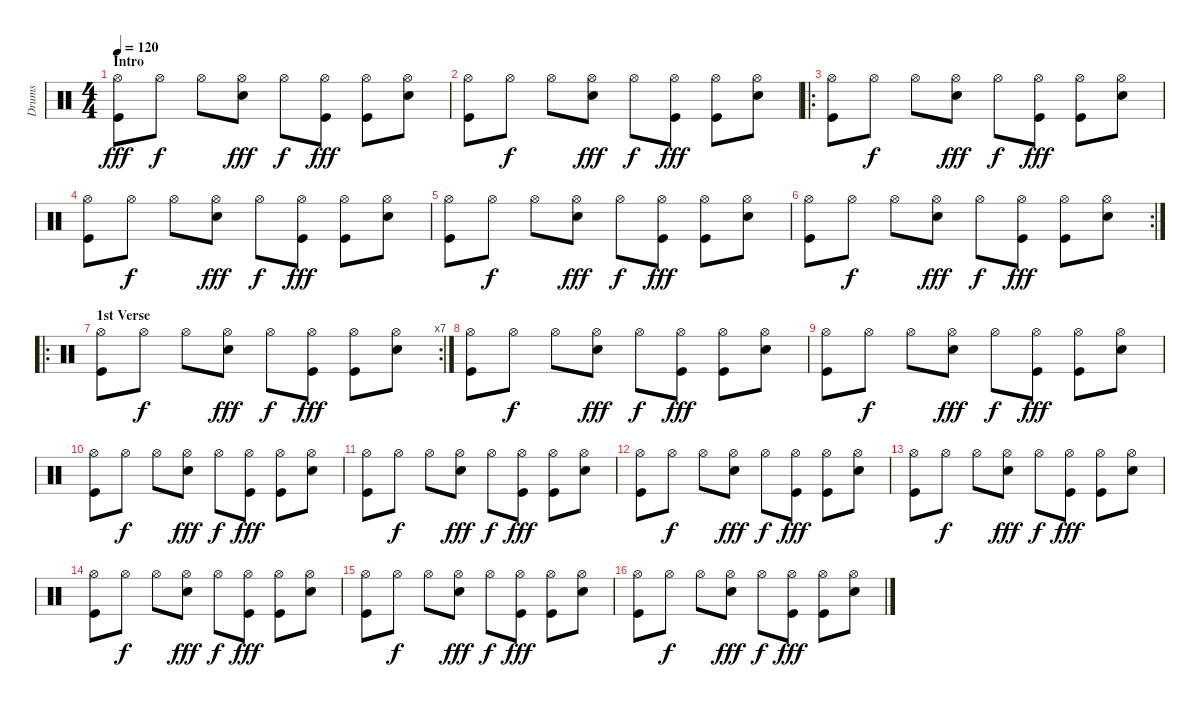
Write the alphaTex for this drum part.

\track ("Drums" "Drums") {instrument percussion}
\staff {score}
\articulation defaults
\ts (4 4)
\section ("" "Intro")
\tempo 120
\clef neutral
\ks c
("Kick (hit)" "Hi-Hat (open)").8{dy fff} "Hi-Hat (open)".8{dy f} "Hi-Hat (open)".8 ("Snare (hit) 2" "Hi-Hat (open)").8{dy fff} "Hi-Hat (open)".8{dy f} ("Kick (hit)" "Hi-Hat (open)").8{dy fff} ("Kick (hit)" "Hi-Hat (open)").8 ("Snare (hit) 2" "Hi-Hat (open)").8 |
("Kick (hit)" "Hi-Hat (open)").8 "Hi-Hat (open)".8{dy f} "Hi-Hat (open)".8 ("Snare (hit) 2" "Hi-Hat (open)").8{dy fff} "Hi-Hat (open)".8{dy f} ("Kick (hit)" "Hi-Hat (open)").8{dy fff} ("Kick (hit)" "Hi-Hat (open)").8 ("Snare (hit) 2" "Hi-Hat (open)").8 |
\ro
("Kick (hit)" "Hi-Hat (open)").8 "Hi-Hat (open)".8{dy f} "Hi-Hat (open)".8 ("Snare (hit) 2" "Hi-Hat (open)").8{dy fff} "Hi-Hat (open)".8{dy f} ("Kick (hit)" "Hi-Hat (open)").8{dy fff} ("Kick (hit)" "Hi-Hat (open)").8 ("Snare (hit) 2" "Hi-Hat (open)").8 |
("Kick (hit)" "Hi-Hat (open)").8 "Hi-Hat (open)".8{dy f} "Hi-Hat (open)".8 ("Snare (hit) 2" "Hi-Hat (open)").8{dy fff} "Hi-Hat (open)".8{dy f} ("Kick (hit)" "Hi-Hat (open)").8{dy fff} ("Kick (hit)" "Hi-Hat (open)").8 ("Snare (hit) 2" "Hi-Hat (open)").8 |
("Kick (hit)" "Hi-Hat (open)").8 "Hi-Hat (open)".8{dy f} "Hi-Hat (open)".8 ("Snare (hit) 2" "Hi-Hat (open)").8{dy fff} "Hi-Hat (open)".8{dy f} ("Kick (hit)" "Hi-Hat (open)").8{dy fff} ("Kick (hit)" "Hi-Hat (open)").8 ("Snare (hit) 2" "Hi-Hat (open)").8 |
\rc 2
("Kick (hit)" "Hi-Hat (open)").8 "Hi-Hat (open)".8{dy f} "Hi-Hat (open)".8 ("Snare (hit) 2" "Hi-Hat (open)").8{dy fff} "Hi-Hat (open)".8{dy f} ("Kick (hit)" "Hi-Hat (open)").8{dy fff} ("Kick (hit)" "Hi-Hat (open)").8 ("Snare (hit) 2" "Hi-Hat (open)").8 |
\ro
\rc 7
\section ("" "1st Verse")
("Kick (hit)" "Hi-Hat (open)").8 "Hi-Hat (open)".8{dy f} "Hi-Hat (open)".8 ("Snare (hit) 2" "Hi-Hat (open)").8{dy fff} "Hi-Hat (open)".8{dy f} ("Kick (hit)" "Hi-Hat (open)").8{dy fff} ("Kick (hit)" "Hi-Hat (open)").8 ("Snare (hit) 2" "Hi-Hat (open)").8 |
("Kick (hit)" "Hi-Hat (open)").8 "Hi-Hat (open)".8{dy f} "Hi-Hat (open)".8 ("Snare (hit) 2" "Hi-Hat (open)").8{dy fff} "Hi-Hat (open)".8{dy f} ("Kick (hit)" "Hi-Hat (open)").8{dy fff} ("Kick (hit)" "Hi-Hat (open)").8 ("Snare (hit) 2" "Hi-Hat (open)").8 |
("Kick (hit)" "Hi-Hat (open)").8 "Hi-Hat (open)".8{dy f} "Hi-Hat (open)".8 ("Snare (hit) 2" "Hi-Hat (open)").8{dy fff} "Hi-Hat (open)".8{dy f} ("Kick (hit)" "Hi-Hat (open)").8{dy fff} ("Kick (hit)" "Hi-Hat (open)").8 ("Snare (hit) 2" "Hi-Hat (open)").8 |
("Kick (hit)" "Hi-Hat (open)").8 "Hi-Hat (open)".8{dy f} "Hi-Hat (open)".8 ("Snare (hit) 2" "Hi-Hat (open)").8{dy fff} "Hi-Hat (open)".8{dy f} ("Kick (hit)" "Hi-Hat (open)").8{dy fff} ("Kick (hit)" "Hi-Hat (open)").8 ("Snare (hit) 2" "Hi-Hat (open)").8 |
("Kick (hit)" "Hi-Hat (open)").8 "Hi-Hat (open)".8{dy f} "Hi-Hat (open)".8 ("Snare (hit) 2" "Hi-Hat (open)").8{dy fff} "Hi-Hat (open)".8{dy f} ("Kick (hit)" "Hi-Hat (open)").8{dy fff} ("Kick (hit)" "Hi-Hat (open)").8 ("Snare (hit) 2" "Hi-Hat (open)").8 |
("Kick (hit)" "Hi-Hat (open)").8 "Hi-Hat (open)".8{dy f} "Hi-Hat (open)".8 ("Snare (hit) 2" "Hi-Hat (open)").8{dy fff} "Hi-Hat (open)".8{dy f} ("Kick (hit)" "Hi-Hat (open)").8{dy fff} ("Kick (hit)" "Hi-Hat (open)").8 ("Snare (hit) 2" "Hi-Hat (open)").8 |
("Kick (hit)" "Hi-Hat (open)").8 "Hi-Hat (open)".8{dy f} "Hi-Hat (open)".8 ("Snare (hit) 2" "Hi-Hat (open)").8{dy fff} "Hi-Hat (open)".8{dy f} ("Kick (hit)" "Hi-Hat (open)").8{dy fff} ("Kick (hit)" "Hi-Hat (open)").8 ("Snare (hit) 2" "Hi-Hat (open)").8 |
("Kick (hit)" "Hi-Hat (open)").8 "Hi-Hat (open)".8{dy f} "Hi-Hat (open)".8 ("Snare (hit) 2" "Hi-Hat (open)").8{dy fff} "Hi-Hat (open)".8{dy f} ("Kick (hit)" "Hi-Hat (open)").8{dy fff} ("Kick (hit)" "Hi-Hat (open)").8 ("Snare (hit) 2" "Hi-Hat (open)").8 |
("Kick (hit)" "Hi-Hat (open)").8 "Hi-Hat (open)".8{dy f} "Hi-Hat (open)".8 ("Snare (hit) 2" "Hi-Hat (open)").8{dy fff} "Hi-Hat (open)".8{dy f} ("Kick (hit)" "Hi-Hat (open)").8{dy fff} ("Kick (hit)" "Hi-Hat (open)").8 ("Snare (hit) 2" "Hi-Hat (open)").8 |
("Kick (hit)" "Hi-Hat (open)").8 "Hi-Hat (open)".8{dy f} "Hi-Hat (open)".8 ("Snare (hit) 2" "Hi-Hat (open)").8{dy fff} "Hi-Hat (open)".8{dy f} ("Kick (hit)" "Hi-Hat (open)").8{dy fff} ("Kick (hit)" "Hi-Hat (open)").8 ("Snare (hit) 2" "Hi-Hat (open)").8
